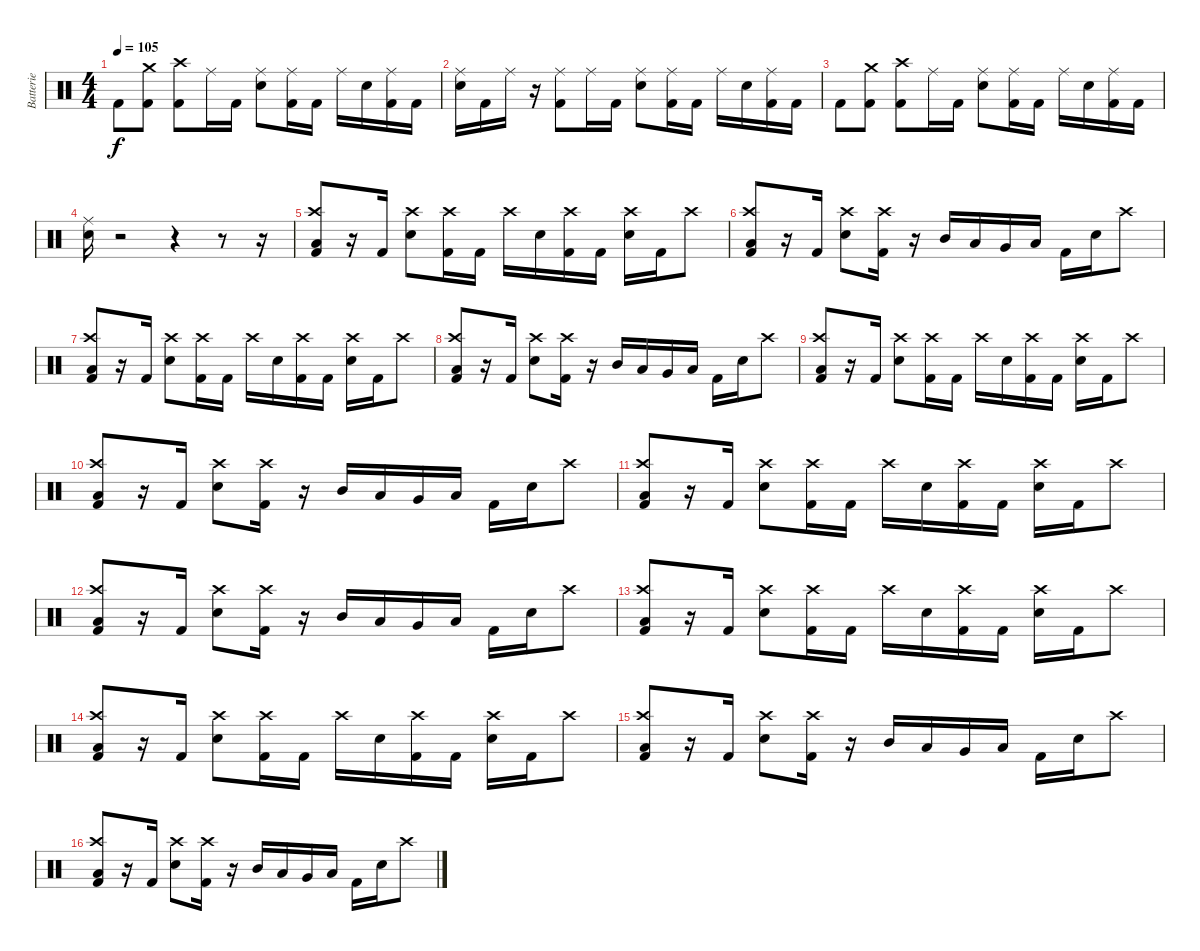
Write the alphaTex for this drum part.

\track ("Batterie" "Batterie") {instrument percussion}
\staff {score}
\articulation defaults
\ts (4 4)
\tempo 105
\clef neutral
\ks c "Kick (hit) 2".8{dy f}
("Crash medium (hit)" "Kick (hit) 2").8 ("Crash high (hit)" "Kick (hit) 2").8 "Ride (middle)".16 "Kick (hit) 2".16 ("Ride (middle)" "Electric Snare (hit)").8 ("Ride (middle)" "Kick (hit) 2").16 "Kick (hit) 2".16 "Ride (middle)".16 "Electric Snare (hit)".16 ("Ride (middle)" "Kick (hit) 2").16 "Kick (hit) 2".16 |
("Ride (middle)" "Electric Snare (hit)").16 "Kick (hit) 2".16 "Ride (middle)".16 r.16 ("Ride (middle)" "Kick (hit) 2").8 "Ride (middle)".16 "Kick (hit) 2".16 ("Ride (middle)" "Electric Snare (hit)").8 ("Ride (middle)" "Kick (hit) 2").16 "Kick (hit) 2".16 "Ride (middle)".16 "Electric Snare (hit)".16 ("Ride (middle)" "Kick (hit) 2").16 "Kick (hit) 2".16 |
"Kick (hit) 2".8 ("Crash medium (hit)" "Kick (hit) 2").8 ("Crash high (hit)" "Kick (hit) 2").8 "Ride (middle)".16 "Kick (hit) 2".16 ("Ride (middle)" "Electric Snare (hit)").8 ("Ride (middle)" "Kick (hit) 2").16 "Kick (hit) 2".16 "Ride (middle)".16 "Electric Snare (hit)".16 ("Ride (middle)" "Kick (hit) 2").16 "Kick (hit) 2".16 |
("Ride (middle)" "Electric Snare (hit)").16 r.2 r.4 r.8 r.16 |
("Low Floor Tom (hit)" "Crash high (hit)" "Kick (hit) 2").8 r.16 "Kick (hit) 2".16 ("Crash high (hit)" "Electric Snare (hit)").8 ("Crash high (hit)" "Kick (hit) 2").16 "Kick (hit) 2".16 "Crash high (hit)".16 "Electric Snare (hit)".16 ("Crash high (hit)" "Kick (hit) 2").16 "Kick (hit) 2".16 ("Crash high (hit)" "Electric Snare (hit)").16 "Kick (hit) 2".16 "Crash high (hit)".8 |
("Low Floor Tom (hit)" "Crash high (hit)" "Kick (hit) 2").8 r.16 "Kick (hit) 2".16 ("Crash high (hit)" "Electric Snare (hit)").8 ("Crash high (hit)" "Kick (hit) 2").16 r.16 "Mid Tom (hit)".16 "Low Tom (hit)".16 "Very Low Tom (hit)".16 "Low Floor Tom (hit)".16 "Kick (hit) 2".16 "Electric Snare (hit)".16 "Crash high (hit)".8 |
("Low Floor Tom (hit)" "Crash high (hit)" "Kick (hit) 2").8 r.16 "Kick (hit) 2".16 ("Crash high (hit)" "Electric Snare (hit)").8 ("Crash high (hit)" "Kick (hit) 2").16 "Kick (hit) 2".16 "Crash high (hit)".16 "Electric Snare (hit)".16 ("Crash high (hit)" "Kick (hit) 2").16 "Kick (hit) 2".16 ("Crash high (hit)" "Electric Snare (hit)").16 "Kick (hit) 2".16 "Crash high (hit)".8 |
("Low Floor Tom (hit)" "Crash high (hit)" "Kick (hit) 2").8 r.16 "Kick (hit) 2".16 ("Crash high (hit)" "Electric Snare (hit)").8 ("Crash high (hit)" "Kick (hit) 2").16 r.16 "Mid Tom (hit)".16 "Low Tom (hit)".16 "Very Low Tom (hit)".16 "Low Floor Tom (hit)".16 "Kick (hit) 2".16 "Electric Snare (hit)".16 "Crash high (hit)".8 |
("Low Floor Tom (hit)" "Crash high (hit)" "Kick (hit) 2").8 r.16 "Kick (hit) 2".16 ("Crash high (hit)" "Electric Snare (hit)").8 ("Crash high (hit)" "Kick (hit) 2").16 "Kick (hit) 2".16 "Crash high (hit)".16 "Electric Snare (hit)".16 ("Crash high (hit)" "Kick (hit) 2").16 "Kick (hit) 2".16 ("Crash high (hit)" "Electric Snare (hit)").16 "Kick (hit) 2".16 "Crash high (hit)".8 |
("Low Floor Tom (hit)" "Crash high (hit)" "Kick (hit) 2").8 r.16 "Kick (hit) 2".16 ("Crash high (hit)" "Electric Snare (hit)").8 ("Crash high (hit)" "Kick (hit) 2").16 r.16 "Mid Tom (hit)".16 "Low Tom (hit)".16 "Very Low Tom (hit)".16 "Low Floor Tom (hit)".16 "Kick (hit) 2".16 "Electric Snare (hit)".16 "Crash high (hit)".8 |
("Low Floor Tom (hit)" "Crash high (hit)" "Kick (hit) 2").8 r.16 "Kick (hit) 2".16 ("Crash high (hit)" "Electric Snare (hit)").8 ("Crash high (hit)" "Kick (hit) 2").16 "Kick (hit) 2".16 "Crash high (hit)".16 "Electric Snare (hit)".16 ("Crash high (hit)" "Kick (hit) 2").16 "Kick (hit) 2".16 ("Crash high (hit)" "Electric Snare (hit)").16 "Kick (hit) 2".16 "Crash high (hit)".8 |
("Low Floor Tom (hit)" "Crash high (hit)" "Kick (hit) 2").8 r.16 "Kick (hit) 2".16 ("Crash high (hit)" "Electric Snare (hit)").8 ("Crash high (hit)" "Kick (hit) 2").16 r.16 "Mid Tom (hit)".16 "Low Tom (hit)".16 "Very Low Tom (hit)".16 "Low Floor Tom (hit)".16 "Kick (hit) 2".16 "Electric Snare (hit)".16 "Crash high (hit)".8 |
("Low Floor Tom (hit)" "Crash high (hit)" "Kick (hit) 2").8 r.16 "Kick (hit) 2".16 ("Crash high (hit)" "Electric Snare (hit)").8 ("Crash high (hit)" "Kick (hit) 2").16 "Kick (hit) 2".16 "Crash high (hit)".16 "Electric Snare (hit)".16 ("Crash high (hit)" "Kick (hit) 2").16 "Kick (hit) 2".16 ("Crash high (hit)" "Electric Snare (hit)").16 "Kick (hit) 2".16 "Crash high (hit)".8 |
("Low Floor Tom (hit)" "Crash high (hit)" "Kick (hit) 2").8 r.16 "Kick (hit) 2".16 ("Crash high (hit)" "Electric Snare (hit)").8 ("Crash high (hit)" "Kick (hit) 2").16 "Kick (hit) 2".16 "Crash high (hit)".16 "Electric Snare (hit)".16 ("Crash high (hit)" "Kick (hit) 2").16 "Kick (hit) 2".16 ("Crash high (hit)" "Electric Snare (hit)").16 "Kick (hit) 2".16 "Crash high (hit)".8 |
("Low Floor Tom (hit)" "Crash high (hit)" "Kick (hit) 2").8 r.16 "Kick (hit) 2".16 ("Crash high (hit)" "Electric Snare (hit)").8 ("Crash high (hit)" "Kick (hit) 2").16 r.16 "Mid Tom (hit)".16 "Low Tom (hit)".16 "Very Low Tom (hit)".16 "Low Floor Tom (hit)".16 "Kick (hit) 2".16 "Electric Snare (hit)".16 "Crash high (hit)".8 |
("Low Floor Tom (hit)" "Crash high (hit)" "Kick (hit) 2").8 r.16 "Kick (hit) 2".16 ("Crash high (hit)" "Electric Snare (hit)").8 ("Crash high (hit)" "Kick (hit) 2").16 r.16 "Mid Tom (hit)".16 "Low Tom (hit)".16 "Very Low Tom (hit)".16 "Low Floor Tom (hit)".16 "Kick (hit) 2".16 "Electric Snare (hit)".16 "Crash high (hit)".8
